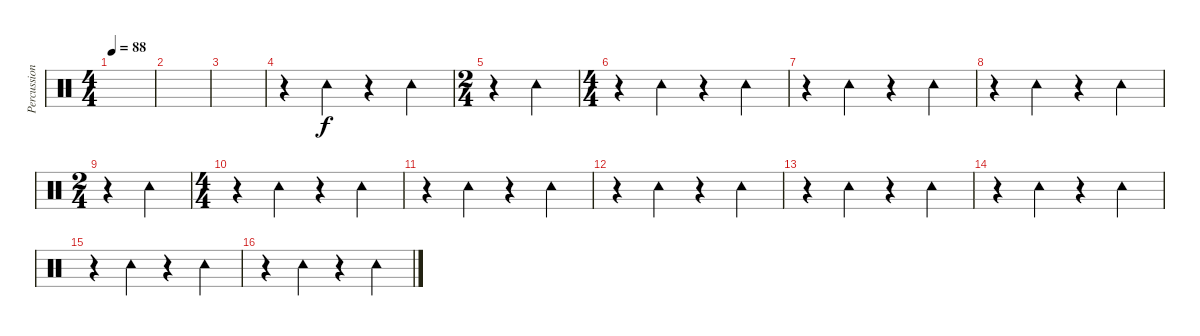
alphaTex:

\track ("Percussioni" "Percussion") {instrument percussion}
\staff {score}
\articulation defaults
\ts (4 4)
\tempo 88
\clef neutral
\ks c
|
|
|
r.4 "Tambourine (hit)".4 r.4 "Tambourine (hit)".4 |
\ts (2 4)
r.4 "Tambourine (hit)".4 |
\ts (4 4)
r.4 "Tambourine (hit)".4 r.4 "Tambourine (hit)".4 |
r.4 "Tambourine (hit)".4 r.4 "Tambourine (hit)".4 |
r.4 "Tambourine (hit)".4 r.4 "Tambourine (hit)".4 |
\ts (2 4)
r.4 "Tambourine (hit)".4 |
\ts (4 4)
r.4 "Tambourine (hit)".4 r.4 "Tambourine (hit)".4 |
r.4 "Tambourine (hit)".4 r.4 "Tambourine (hit)".4 |
r.4 "Tambourine (hit)".4 r.4 "Tambourine (hit)".4 |
r.4 "Tambourine (hit)".4 r.4 "Tambourine (hit)".4 |
r.4 "Tambourine (hit)".4 r.4 "Tambourine (hit)".4 |
r.4 "Tambourine (hit)".4 r.4 "Tambourine (hit)".4 |
r.4 "Tambourine (hit)".4 r.4 "Tambourine (hit)".4
